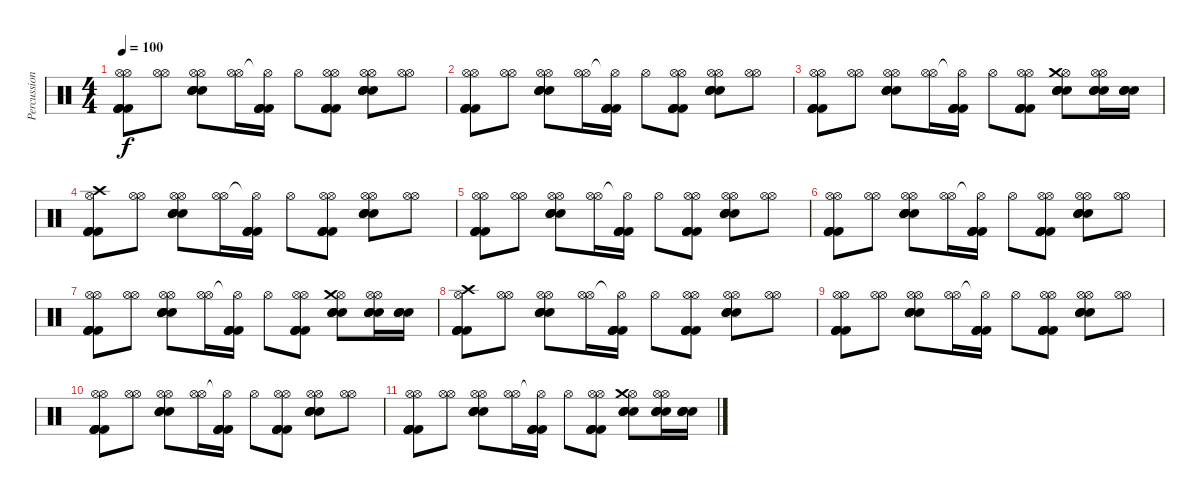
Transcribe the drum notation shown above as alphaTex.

\track ("Percussion" "Percussion") {instrument percussion}
\staff {score}
\articulation defaults
\ts (4 4)
\tempo 100
\clef neutral
\ks c
("Hi-Hat (open)" "Kick (hit) 2" "Kick (hit) 2" "Kick (hit) 2" "Kick (hit) 2" "Hi-Hat (open)").8{dy f} ("Hi-Hat (open)" "Hi-Hat (open)").8 ("Hi-Hat (open)" "Electric Snare (hit)" "Electric Snare (hit)" "Electric Snare (hit)" "Electric Snare (hit)" "Hi-Hat (open)").8 ("Hi-Hat (open)" "Hi-Hat (open)").16 ("Hi-Hat (open)"{t} "Kick (hit) 2" "Kick (hit) 2" "Kick (hit) 2" "Kick (hit) 2").16 "Hi-Hat (open)".8 ("Hi-Hat (open)" "Kick (hit) 2" "Kick (hit) 2" "Kick (hit) 2" "Kick (hit) 2" "Hi-Hat (open)").8 ("Hi-Hat (open)" "Electric Snare (hit)" "Electric Snare (hit)" "Electric Snare (hit)" "Electric Snare (hit)" "Hi-Hat (open)").8 ("Hi-Hat (open)" "Hi-Hat (open)").8 |
("Hi-Hat (open)" "Kick (hit) 2" "Kick (hit) 2" "Kick (hit) 2" "Kick (hit) 2" "Hi-Hat (open)").8 ("Hi-Hat (open)" "Hi-Hat (open)").8 ("Hi-Hat (open)" "Electric Snare (hit)" "Electric Snare (hit)" "Electric Snare (hit)" "Electric Snare (hit)" "Hi-Hat (open)").8 ("Hi-Hat (open)" "Hi-Hat (open)").16 ("Hi-Hat (open)"{t} "Kick (hit) 2" "Kick (hit) 2" "Kick (hit) 2" "Kick (hit) 2").16 "Hi-Hat (open)".8 ("Hi-Hat (open)" "Kick (hit) 2" "Kick (hit) 2" "Kick (hit) 2" "Kick (hit) 2" "Hi-Hat (open)").8 ("Hi-Hat (open)" "Electric Snare (hit)" "Electric Snare (hit)" "Electric Snare (hit)" "Electric Snare (hit)" "Hi-Hat (open)").8 ("Hi-Hat (open)" "Hi-Hat (open)").8 |
("Hi-Hat (open)" "Kick (hit) 2" "Kick (hit) 2" "Kick (hit) 2" "Kick (hit) 2" "Hi-Hat (open)").8 ("Hi-Hat (open)" "Hi-Hat (open)").8 ("Hi-Hat (open)" "Electric Snare (hit)" "Electric Snare (hit)" "Electric Snare (hit)" "Electric Snare (hit)" "Hi-Hat (open)").8 ("Hi-Hat (open)" "Hi-Hat (open)").16 ("Hi-Hat (open)"{t} "Kick (hit) 2" "Kick (hit) 2" "Kick (hit) 2" "Kick (hit) 2").16 "Hi-Hat (open)".8 ("Hi-Hat (open)" "Kick (hit) 2" "Kick (hit) 2" "Kick (hit) 2" "Kick (hit) 2" "Hi-Hat (open)").8 ("Hi-Hat (open)" "Electric Snare (hit)" "Electric Snare (hit)" "Electric Snare (hit)" "Electric Snare (hit)" "Crash medium (hit)").8 ("Hi-Hat (open)" "Electric Snare (hit)" "Electric Snare (hit)" "Electric Snare (hit)" "Electric Snare (hit)" "Hi-Hat (open)").16 ("Electric Snare (hit)" "Electric Snare (hit)" "Electric Snare (hit)" "Electric Snare (hit)").16 |
("Hi-Hat (open)" "Kick (hit) 2" "Kick (hit) 2" "Kick (hit) 2" "Kick (hit) 2" "Crash high (hit)").8 ("Hi-Hat (open)" "Hi-Hat (open)").8 ("Hi-Hat (open)" "Electric Snare (hit)" "Electric Snare (hit)" "Electric Snare (hit)" "Electric Snare (hit)" "Hi-Hat (open)").8 ("Hi-Hat (open)" "Hi-Hat (open)").16 ("Hi-Hat (open)"{t} "Kick (hit) 2" "Kick (hit) 2" "Kick (hit) 2" "Kick (hit) 2").16 "Hi-Hat (open)".8 ("Hi-Hat (open)" "Kick (hit) 2" "Kick (hit) 2" "Kick (hit) 2" "Kick (hit) 2" "Hi-Hat (open)").8 ("Hi-Hat (open)" "Electric Snare (hit)" "Electric Snare (hit)" "Electric Snare (hit)" "Electric Snare (hit)" "Hi-Hat (open)").8 ("Hi-Hat (open)" "Hi-Hat (open)").8 |
("Hi-Hat (open)" "Kick (hit) 2" "Kick (hit) 2" "Kick (hit) 2" "Kick (hit) 2" "Hi-Hat (open)").8 ("Hi-Hat (open)" "Hi-Hat (open)").8 ("Hi-Hat (open)" "Electric Snare (hit)" "Electric Snare (hit)" "Electric Snare (hit)" "Electric Snare (hit)" "Hi-Hat (open)").8 ("Hi-Hat (open)" "Hi-Hat (open)").16 ("Hi-Hat (open)"{t} "Kick (hit) 2" "Kick (hit) 2" "Kick (hit) 2" "Kick (hit) 2").16 "Hi-Hat (open)".8 ("Hi-Hat (open)" "Kick (hit) 2" "Kick (hit) 2" "Kick (hit) 2" "Kick (hit) 2" "Hi-Hat (open)").8 ("Hi-Hat (open)" "Electric Snare (hit)" "Electric Snare (hit)" "Electric Snare (hit)" "Electric Snare (hit)" "Hi-Hat (open)").8 ("Hi-Hat (open)" "Hi-Hat (open)").8 |
("Hi-Hat (open)" "Kick (hit) 2" "Kick (hit) 2" "Kick (hit) 2" "Kick (hit) 2" "Hi-Hat (open)").8 ("Hi-Hat (open)" "Hi-Hat (open)").8 ("Hi-Hat (open)" "Electric Snare (hit)" "Electric Snare (hit)" "Electric Snare (hit)" "Electric Snare (hit)" "Hi-Hat (open)").8 ("Hi-Hat (open)" "Hi-Hat (open)").16 ("Hi-Hat (open)"{t} "Kick (hit) 2" "Kick (hit) 2" "Kick (hit) 2" "Kick (hit) 2").16 "Hi-Hat (open)".8 ("Hi-Hat (open)" "Kick (hit) 2" "Kick (hit) 2" "Kick (hit) 2" "Kick (hit) 2" "Hi-Hat (open)").8 ("Hi-Hat (open)" "Electric Snare (hit)" "Electric Snare (hit)" "Electric Snare (hit)" "Electric Snare (hit)" "Hi-Hat (open)").8 ("Hi-Hat (open)" "Hi-Hat (open)").8 |
("Hi-Hat (open)" "Kick (hit) 2" "Kick (hit) 2" "Kick (hit) 2" "Kick (hit) 2" "Hi-Hat (open)").8 ("Hi-Hat (open)" "Hi-Hat (open)").8 ("Hi-Hat (open)" "Electric Snare (hit)" "Electric Snare (hit)" "Electric Snare (hit)" "Electric Snare (hit)" "Hi-Hat (open)").8 ("Hi-Hat (open)" "Hi-Hat (open)").16 ("Hi-Hat (open)"{t} "Kick (hit) 2" "Kick (hit) 2" "Kick (hit) 2" "Kick (hit) 2").16 "Hi-Hat (open)".8 ("Hi-Hat (open)" "Kick (hit) 2" "Kick (hit) 2" "Kick (hit) 2" "Kick (hit) 2" "Hi-Hat (open)").8 ("Hi-Hat (open)" "Electric Snare (hit)" "Electric Snare (hit)" "Electric Snare (hit)" "Electric Snare (hit)" "Crash medium (hit)").8 ("Hi-Hat (open)" "Electric Snare (hit)" "Electric Snare (hit)" "Electric Snare (hit)" "Electric Snare (hit)" "Hi-Hat (open)").16 ("Electric Snare (hit)" "Electric Snare (hit)" "Electric Snare (hit)" "Electric Snare (hit)").16 |
("Hi-Hat (open)" "Kick (hit) 2" "Kick (hit) 2" "Kick (hit) 2" "Kick (hit) 2" "Crash high (hit)").8 ("Hi-Hat (open)" "Hi-Hat (open)").8 ("Hi-Hat (open)" "Electric Snare (hit)" "Electric Snare (hit)" "Electric Snare (hit)" "Electric Snare (hit)" "Hi-Hat (open)").8 ("Hi-Hat (open)" "Hi-Hat (open)").16 ("Hi-Hat (open)"{t} "Kick (hit) 2" "Kick (hit) 2" "Kick (hit) 2" "Kick (hit) 2").16 "Hi-Hat (open)".8 ("Hi-Hat (open)" "Kick (hit) 2" "Kick (hit) 2" "Kick (hit) 2" "Kick (hit) 2" "Hi-Hat (open)").8 ("Hi-Hat (open)" "Electric Snare (hit)" "Electric Snare (hit)" "Electric Snare (hit)" "Electric Snare (hit)" "Hi-Hat (open)").8 ("Hi-Hat (open)" "Hi-Hat (open)").8 |
("Hi-Hat (open)" "Kick (hit) 2" "Kick (hit) 2" "Kick (hit) 2" "Kick (hit) 2" "Hi-Hat (open)").8 ("Hi-Hat (open)" "Hi-Hat (open)").8 ("Hi-Hat (open)" "Electric Snare (hit)" "Electric Snare (hit)" "Electric Snare (hit)" "Electric Snare (hit)" "Hi-Hat (open)").8 ("Hi-Hat (open)" "Hi-Hat (open)").16 ("Hi-Hat (open)"{t} "Kick (hit) 2" "Kick (hit) 2" "Kick (hit) 2" "Kick (hit) 2").16 "Hi-Hat (open)".8 ("Hi-Hat (open)" "Kick (hit) 2" "Kick (hit) 2" "Kick (hit) 2" "Kick (hit) 2" "Hi-Hat (open)").8 ("Hi-Hat (open)" "Electric Snare (hit)" "Electric Snare (hit)" "Electric Snare (hit)" "Electric Snare (hit)" "Hi-Hat (open)").8 ("Hi-Hat (open)" "Hi-Hat (open)").8 |
("Hi-Hat (open)" "Kick (hit) 2" "Kick (hit) 2" "Kick (hit) 2" "Kick (hit) 2" "Hi-Hat (open)").8 ("Hi-Hat (open)" "Hi-Hat (open)").8 ("Hi-Hat (open)" "Electric Snare (hit)" "Electric Snare (hit)" "Electric Snare (hit)" "Electric Snare (hit)" "Hi-Hat (open)").8 ("Hi-Hat (open)" "Hi-Hat (open)").16 ("Hi-Hat (open)"{t} "Kick (hit) 2" "Kick (hit) 2" "Kick (hit) 2" "Kick (hit) 2").16 "Hi-Hat (open)".8 ("Hi-Hat (open)" "Kick (hit) 2" "Kick (hit) 2" "Kick (hit) 2" "Kick (hit) 2" "Hi-Hat (open)").8 ("Hi-Hat (open)" "Electric Snare (hit)" "Electric Snare (hit)" "Electric Snare (hit)" "Electric Snare (hit)" "Hi-Hat (open)").8 ("Hi-Hat (open)" "Hi-Hat (open)").8 |
("Hi-Hat (open)" "Kick (hit) 2" "Kick (hit) 2" "Kick (hit) 2" "Kick (hit) 2" "Hi-Hat (open)").8 ("Hi-Hat (open)" "Hi-Hat (open)").8 ("Hi-Hat (open)" "Electric Snare (hit)" "Electric Snare (hit)" "Electric Snare (hit)" "Electric Snare (hit)" "Hi-Hat (open)").8 ("Hi-Hat (open)" "Hi-Hat (open)").16 ("Hi-Hat (open)"{t} "Kick (hit) 2" "Kick (hit) 2" "Kick (hit) 2" "Kick (hit) 2").16 "Hi-Hat (open)".8 ("Hi-Hat (open)" "Kick (hit) 2" "Kick (hit) 2" "Kick (hit) 2" "Kick (hit) 2" "Hi-Hat (open)").8 ("Hi-Hat (open)" "Electric Snare (hit)" "Electric Snare (hit)" "Electric Snare (hit)" "Electric Snare (hit)" "Crash medium (hit)").8 ("Hi-Hat (open)" "Electric Snare (hit)" "Electric Snare (hit)" "Electric Snare (hit)" "Electric Snare (hit)" "Hi-Hat (open)").16 ("Electric Snare (hit)" "Electric Snare (hit)" "Electric Snare (hit)" "Electric Snare (hit)").16
